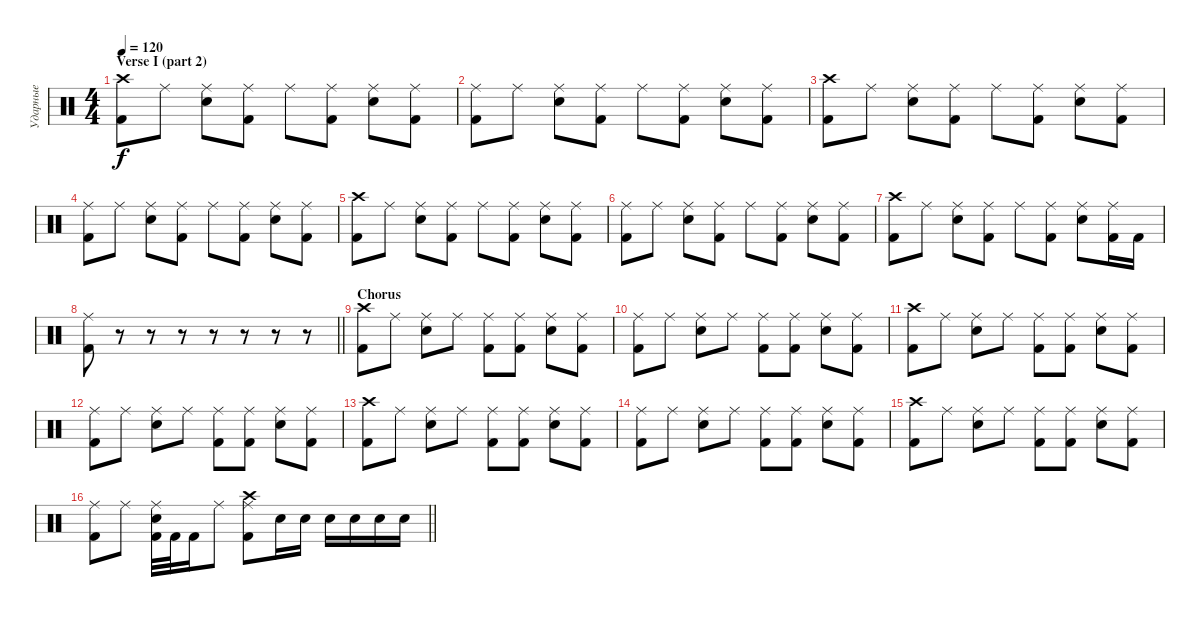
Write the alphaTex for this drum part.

\track ("Ударные" "Ударные") {instrument percussion}
\staff {score}
\articulation defaults
\ts (4 4)
\section ("" "Verse I (part 2)")
\tempo 120
\clef neutral
\ks c
("Crash high (hit)" "Kick (hit) 2").8{dy f} "Ride (middle)".8 ("Ride (middle)" "Electric Snare (hit)").8 ("Ride (middle)" "Kick (hit) 2").8 "Ride (middle)".8 ("Ride (middle)" "Kick (hit) 2").8 ("Ride (middle)" "Electric Snare (hit)").8 ("Ride (middle)" "Kick (hit) 2").8 |
("Ride (middle)" "Kick (hit) 2").8 "Ride (middle)".8 ("Ride (middle)" "Electric Snare (hit)").8 ("Ride (middle)" "Kick (hit) 2").8 "Ride (middle)".8 ("Ride (middle)" "Kick (hit) 2").8 ("Ride (middle)" "Electric Snare (hit)").8 ("Ride (middle)" "Kick (hit) 2").8 |
("Crash high (hit)" "Kick (hit) 2").8 "Ride (middle)".8 ("Ride (middle)" "Electric Snare (hit)").8 ("Ride (middle)" "Kick (hit) 2").8 "Ride (middle)".8 ("Ride (middle)" "Kick (hit) 2").8 ("Ride (middle)" "Electric Snare (hit)").8 ("Ride (middle)" "Kick (hit) 2").8 |
("Ride (middle)" "Kick (hit) 2").8 "Ride (middle)".8 ("Ride (middle)" "Electric Snare (hit)").8 ("Ride (middle)" "Kick (hit) 2").8 "Ride (middle)".8 ("Ride (middle)" "Kick (hit) 2").8 ("Ride (middle)" "Electric Snare (hit)").8 ("Ride (middle)" "Kick (hit) 2").8 |
("Crash high (hit)" "Kick (hit) 2").8 "Ride (middle)".8 ("Ride (middle)" "Electric Snare (hit)").8 ("Ride (middle)" "Kick (hit) 2").8 "Ride (middle)".8 ("Ride (middle)" "Kick (hit) 2").8 ("Ride (middle)" "Electric Snare (hit)").8 ("Ride (middle)" "Kick (hit) 2").8 |
("Ride (middle)" "Kick (hit) 2").8 "Ride (middle)".8 ("Ride (middle)" "Electric Snare (hit)").8 ("Ride (middle)" "Kick (hit) 2").8 "Ride (middle)".8 ("Ride (middle)" "Kick (hit) 2").8 ("Ride (middle)" "Electric Snare (hit)").8 ("Ride (middle)" "Kick (hit) 2").8 |
("Crash high (hit)" "Kick (hit) 2").8 "Ride (middle)".8 ("Ride (middle)" "Electric Snare (hit)").8 ("Ride (middle)" "Kick (hit) 2").8 "Ride (middle)".8 ("Ride (middle)" "Kick (hit) 2").8 ("Ride (middle)" "Electric Snare (hit)").8 ("Ride (middle)" "Kick (hit) 2").16 "Kick (hit) 2".16 |
\barLineRight lightlight
("Ride (middle)" "Kick (hit) 2").8 r.8 r.8 r.8 r.8 r.8 r.8 r.8 |
\section ("" "Chorus")
("Crash high (hit)" "Kick (hit) 2").8 "Ride (middle)".8 ("Ride (middle)" "Electric Snare (hit)").8 "Ride (middle)".8 ("Ride (middle)" "Kick (hit) 2").8 ("Ride (middle)" "Kick (hit) 2").8 ("Ride (middle)" "Electric Snare (hit)").8 ("Ride (middle)" "Kick (hit) 2").8 |
("Ride (middle)" "Kick (hit) 2").8 "Ride (middle)".8 ("Ride (middle)" "Electric Snare (hit)").8 "Ride (middle)".8 ("Ride (middle)" "Kick (hit) 2").8 ("Ride (middle)" "Kick (hit) 2").8 ("Ride (middle)" "Electric Snare (hit)").8 ("Ride (middle)" "Kick (hit) 2").8 |
("Crash high (hit)" "Kick (hit) 2").8 "Ride (middle)".8 ("Ride (middle)" "Electric Snare (hit)").8 "Ride (middle)".8 ("Ride (middle)" "Kick (hit) 2").8 ("Ride (middle)" "Kick (hit) 2").8 ("Ride (middle)" "Electric Snare (hit)").8 ("Ride (middle)" "Kick (hit) 2").8 |
("Ride (middle)" "Kick (hit) 2").8 "Ride (middle)".8 ("Ride (middle)" "Electric Snare (hit)").8 "Ride (middle)".8 ("Ride (middle)" "Kick (hit) 2").8 ("Ride (middle)" "Kick (hit) 2").8 ("Ride (middle)" "Electric Snare (hit)").8 ("Ride (middle)" "Kick (hit) 2").8 |
("Crash high (hit)" "Kick (hit) 2").8 "Ride (middle)".8 ("Ride (middle)" "Electric Snare (hit)").8 "Ride (middle)".8 ("Ride (middle)" "Kick (hit) 2").8 ("Ride (middle)" "Kick (hit) 2").8 ("Ride (middle)" "Electric Snare (hit)").8 ("Ride (middle)" "Kick (hit) 2").8 |
("Ride (middle)" "Kick (hit) 2").8 "Ride (middle)".8 ("Ride (middle)" "Electric Snare (hit)").8 "Ride (middle)".8 ("Ride (middle)" "Kick (hit) 2").8 ("Ride (middle)" "Kick (hit) 2").8 ("Ride (middle)" "Electric Snare (hit)").8 ("Ride (middle)" "Kick (hit) 2").8 |
("Crash high (hit)" "Kick (hit) 2").8 "Ride (middle)".8 ("Ride (middle)" "Electric Snare (hit)").8 "Ride (middle)".8 ("Ride (middle)" "Kick (hit) 2").8 ("Ride (middle)" "Kick (hit) 2").8 ("Ride (middle)" "Electric Snare (hit)").8 ("Ride (middle)" "Kick (hit) 2").8 |
\barLineRight lightlight
("Ride (middle)" "Kick (hit) 2").8 "Ride (middle)".8 ("Ride (middle)" "Electric Snare (hit)" "Kick (hit) 2").32 "Kick (hit) 2".32 "Kick (hit) 2".16 "Ride (middle)".8 ("Crash high (hit)" "Ride (middle)" "Kick (hit) 2").8 "Electric Snare (hit)".16 "Electric Snare (hit)".16 "Electric Snare (hit)".16 "Electric Snare (hit)".16 "Electric Snare (hit)".16 "Electric Snare (hit)".16
